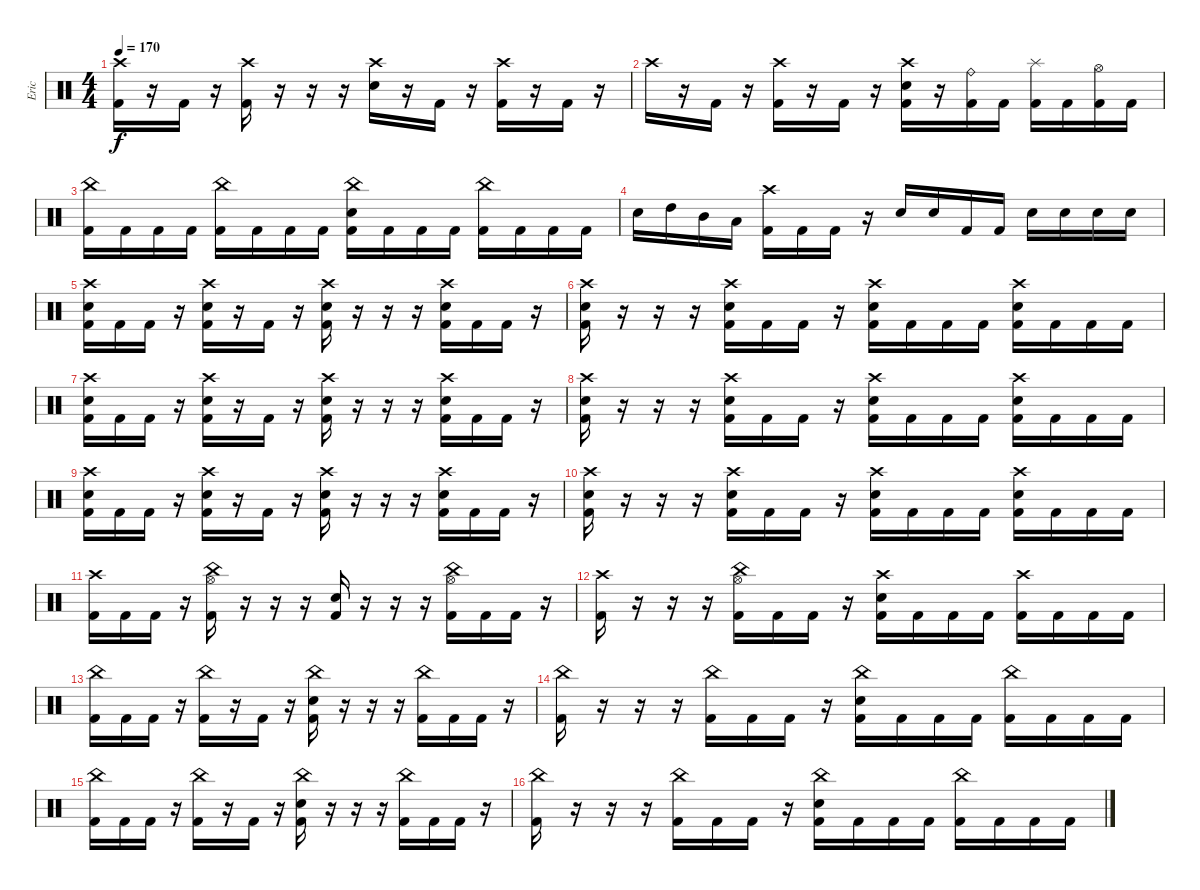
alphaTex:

\track ("Eric" "Eric") {instrument percussion}
\staff {score}
\articulation defaults
\ts (4 4)
\tempo 170
\clef neutral
\ks c
("Crash high (hit)" "Kick (hit) 2").16{dy f} r.16 "Kick (hit) 2".16 r.16 ("Crash high (hit)" "Kick (hit) 2").16 r.16 r.16 r.16 ("Crash high (hit)" "Electric Snare (hit)").16 r.16 "Kick (hit) 2".16 r.16 ("Crash high (hit)" "Kick (hit) 2").16 r.16 "Kick (hit) 2".16 r.16 |
"Crash high (hit)".16 r.16 "Kick (hit) 2".16 r.16 ("Crash high (hit)" "Kick (hit) 2").16 r.16 "Kick (hit) 2".16 r.16 ("Crash high (hit)" "Electric Snare (hit)" "Kick (hit) 2").16 r.16 ("Ride (bell)" "Kick (hit) 2").16 "Kick (hit) 2".16 ("Splash (hit)" "Kick (hit) 2").16 "Kick (hit) 2".16 ("Hi-Hat (open)" "Kick (hit) 2").16 "Kick (hit) 2".16 |
("China (hit)" "Kick (hit) 2").16 "Kick (hit) 2".16 "Kick (hit) 2".16 "Kick (hit) 2".16 ("China (hit)" "Kick (hit) 2").16 "Kick (hit) 2".16 "Kick (hit) 2".16 "Kick (hit) 2".16 ("China (hit)" "Electric Snare (hit)" "Kick (hit) 2").16 "Kick (hit) 2".16 "Kick (hit) 2".16 "Kick (hit) 2".16 ("China (hit)" "Kick (hit) 2").16 "Kick (hit) 2".16 "Kick (hit) 2".16 "Kick (hit) 2".16 |
"Electric Snare (hit)".16 "High Tom (hit)".16 "Mid Tom (hit)".16 "Low Tom (hit)".16 ("Crash high (hit)" "Kick (hit) 2").16 "Kick (hit) 2".16 "Kick (hit) 2".16 r.16 "Electric Snare (hit)".16 "Electric Snare (hit)".16 "Kick (hit) 2".16 "Kick (hit) 2".16 "Electric Snare (hit)".16 "Electric Snare (hit)".16 "Electric Snare (hit)".16 "Electric Snare (hit)".16 |
("Crash high (hit)" "Electric Snare (hit)" "Kick (hit) 2").16 "Kick (hit) 2".16 "Kick (hit) 2".16 r.16 ("Crash high (hit)" "Electric Snare (hit)" "Kick (hit) 2").16 r.16 "Kick (hit) 2".16 r.16 ("Crash high (hit)" "Electric Snare (hit)" "Kick (hit) 2").16 r.16 r.16 r.16 ("Crash high (hit)" "Electric Snare (hit)" "Kick (hit) 2").16 "Kick (hit) 2".16 "Kick (hit) 2".16 r.16 |
("Crash high (hit)" "Electric Snare (hit)" "Kick (hit) 2").16 r.16 r.16 r.16 ("Crash high (hit)" "Electric Snare (hit)" "Kick (hit) 2").16 "Kick (hit) 2".16 "Kick (hit) 2".16 r.16 ("Crash high (hit)" "Electric Snare (hit)" "Kick (hit) 2").16 "Kick (hit) 2".16 "Kick (hit) 2".16 "Kick (hit) 2".16 ("Crash high (hit)" "Electric Snare (hit)" "Kick (hit) 2").16 "Kick (hit) 2".16 "Kick (hit) 2".16 "Kick (hit) 2".16 |
("Crash high (hit)" "Electric Snare (hit)" "Kick (hit) 2").16 "Kick (hit) 2".16 "Kick (hit) 2".16 r.16 ("Crash high (hit)" "Electric Snare (hit)" "Kick (hit) 2").16 r.16 "Kick (hit) 2".16 r.16 ("Crash high (hit)" "Electric Snare (hit)" "Kick (hit) 2").16 r.16 r.16 r.16 ("Crash high (hit)" "Electric Snare (hit)" "Kick (hit) 2").16 "Kick (hit) 2".16 "Kick (hit) 2".16 r.16 |
("Crash high (hit)" "Electric Snare (hit)" "Kick (hit) 2").16 r.16 r.16 r.16 ("Crash high (hit)" "Electric Snare (hit)" "Kick (hit) 2").16 "Kick (hit) 2".16 "Kick (hit) 2".16 r.16 ("Crash high (hit)" "Electric Snare (hit)" "Kick (hit) 2").16 "Kick (hit) 2".16 "Kick (hit) 2".16 "Kick (hit) 2".16 ("Crash high (hit)" "Electric Snare (hit)" "Kick (hit) 2").16 "Kick (hit) 2".16 "Kick (hit) 2".16 "Kick (hit) 2".16 |
("Crash high (hit)" "Electric Snare (hit)" "Kick (hit) 2").16 "Kick (hit) 2".16 "Kick (hit) 2".16 r.16 ("Crash high (hit)" "Electric Snare (hit)" "Kick (hit) 2").16 r.16 "Kick (hit) 2".16 r.16 ("Crash high (hit)" "Electric Snare (hit)" "Kick (hit) 2").16 r.16 r.16 r.16 ("Crash high (hit)" "Electric Snare (hit)" "Kick (hit) 2").16 "Kick (hit) 2".16 "Kick (hit) 2".16 r.16 |
("Crash high (hit)" "Electric Snare (hit)" "Kick (hit) 2").16 r.16 r.16 r.16 ("Crash high (hit)" "Electric Snare (hit)" "Kick (hit) 2").16 "Kick (hit) 2".16 "Kick (hit) 2".16 r.16 ("Crash high (hit)" "Electric Snare (hit)" "Kick (hit) 2").16 "Kick (hit) 2".16 "Kick (hit) 2".16 "Kick (hit) 2".16 ("Crash high (hit)" "Electric Snare (hit)" "Kick (hit) 2").16 "Kick (hit) 2".16 "Kick (hit) 2".16 "Kick (hit) 2".16 |
("Crash high (hit)" "Kick (hit) 2").16 "Kick (hit) 2".16 "Kick (hit) 2".16 r.16 ("Hi-Hat (open)" "China (hit)" "Kick (hit) 2").16 r.16 r.16 r.16 ("Electric Snare (hit)" "Kick (hit) 2").16 r.16 r.16 r.16 ("Hi-Hat (open)" "China (hit)" "Kick (hit) 2").16 "Kick (hit) 2".16 "Kick (hit) 2".16 r.16 |
("Crash high (hit)" "Kick (hit) 2").16 r.16 r.16 r.16 ("Hi-Hat (open)" "China (hit)" "Kick (hit) 2").16 "Kick (hit) 2".16 "Kick (hit) 2".16 r.16 ("Crash high (hit)" "Electric Snare (hit)" "Kick (hit) 2").16 "Kick (hit) 2".16 "Kick (hit) 2".16 "Kick (hit) 2".16 ("Crash high (hit)" "Kick (hit) 2").16 "Kick (hit) 2".16 "Kick (hit) 2".16 "Kick (hit) 2".16 |
("China (hit)" "Kick (hit) 2").16 "Kick (hit) 2".16 "Kick (hit) 2".16 r.16 ("China (hit)" "Kick (hit) 2").16 r.16 "Kick (hit) 2".16 r.16 ("China (hit)" "Electric Snare (hit)" "Kick (hit) 2").16 r.16 r.16 r.16 ("China (hit)" "Kick (hit) 2").16 "Kick (hit) 2".16 "Kick (hit) 2".16 r.16 |
("China (hit)" "Kick (hit) 2").16 r.16 r.16 r.16 ("China (hit)" "Kick (hit) 2").16 "Kick (hit) 2".16 "Kick (hit) 2".16 r.16 ("China (hit)" "Electric Snare (hit)" "Kick (hit) 2").16 "Kick (hit) 2".16 "Kick (hit) 2".16 "Kick (hit) 2".16 ("China (hit)" "Kick (hit) 2").16 "Kick (hit) 2".16 "Kick (hit) 2".16 "Kick (hit) 2".16 |
("China (hit)" "Kick (hit) 2").16 "Kick (hit) 2".16 "Kick (hit) 2".16 r.16 ("China (hit)" "Kick (hit) 2").16 r.16 "Kick (hit) 2".16 r.16 ("China (hit)" "Electric Snare (hit)" "Kick (hit) 2").16 r.16 r.16 r.16 ("China (hit)" "Kick (hit) 2").16 "Kick (hit) 2".16 "Kick (hit) 2".16 r.16 |
("China (hit)" "Kick (hit) 2").16 r.16 r.16 r.16 ("China (hit)" "Kick (hit) 2").16 "Kick (hit) 2".16 "Kick (hit) 2".16 r.16 ("China (hit)" "Electric Snare (hit)" "Kick (hit) 2").16 "Kick (hit) 2".16 "Kick (hit) 2".16 "Kick (hit) 2".16 ("China (hit)" "Kick (hit) 2").16 "Kick (hit) 2".16 "Kick (hit) 2".16 "Kick (hit) 2".16
